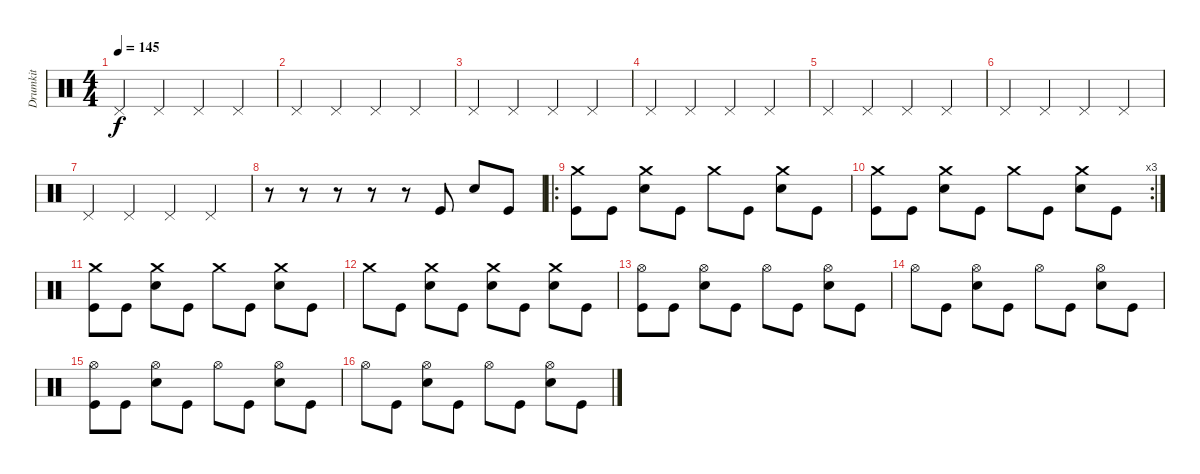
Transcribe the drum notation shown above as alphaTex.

\track ("Drumkit" "Drumkit") {instrument percussion}
\staff {score}
\articulation defaults
\ts (4 4)
\tempo 145
\clef neutral
\ks c "Pedal Hi-Hat (hit)".4{dy f} "Pedal Hi-Hat (hit)".4 "Pedal Hi-Hat (hit)".4 "Pedal Hi-Hat (hit)".4
|
"Pedal Hi-Hat (hit)".4 "Pedal Hi-Hat (hit)".4 "Pedal Hi-Hat (hit)".4 "Pedal Hi-Hat (hit)".4 |
"Pedal Hi-Hat (hit)".4 "Pedal Hi-Hat (hit)".4 "Pedal Hi-Hat (hit)".4 "Pedal Hi-Hat (hit)".4 |
"Pedal Hi-Hat (hit)".4 "Pedal Hi-Hat (hit)".4 "Pedal Hi-Hat (hit)".4 "Pedal Hi-Hat (hit)".4 |
"Pedal Hi-Hat (hit)".4 "Pedal Hi-Hat (hit)".4 "Pedal Hi-Hat (hit)".4 "Pedal Hi-Hat (hit)".4 |
"Pedal Hi-Hat (hit)".4 "Pedal Hi-Hat (hit)".4 "Pedal Hi-Hat (hit)".4 "Pedal Hi-Hat (hit)".4 |
"Pedal Hi-Hat (hit)".4 "Pedal Hi-Hat (hit)".4 "Pedal Hi-Hat (hit)".4 "Pedal Hi-Hat (hit)".4 |
r.8 r.8 r.8 r.8 r.8 "Kick (hit)".8 "Snare (hit) 2".8 "Kick (hit)".8 |
\ro
("Kick (hit)" "Crash medium (hit)").8 "Kick (hit)".8 ("Snare (hit) 2" "Crash medium (hit)").8 "Kick (hit)".8 "Crash medium (hit)".8 "Kick (hit)".8 ("Snare (hit) 2" "Crash medium (hit)").8 "Kick (hit)".8 |
\rc 3
("Kick (hit)" "Crash medium (hit)").8 "Kick (hit)".8 ("Snare (hit) 2" "Crash medium (hit)").8 "Kick (hit)".8 "Crash medium (hit)".8 "Kick (hit)".8 ("Snare (hit) 2" "Crash medium (hit)").8 "Kick (hit)".8 |
("Kick (hit)" "Crash medium (hit)").8 "Kick (hit)".8 ("Snare (hit) 2" "Crash medium (hit)").8 "Kick (hit)".8 "Crash medium (hit)".8 "Kick (hit)".8 ("Snare (hit) 2" "Crash medium (hit)").8 "Kick (hit)".8 |
"Crash medium (hit)".8 "Kick (hit)".8 ("Snare (hit) 2" "Crash medium (hit)").8 "Kick (hit)".8 ("Crash medium (hit)" "Snare (hit) 2").8 "Kick (hit)".8 ("Snare (hit) 2" "Crash medium (hit)").8 "Kick (hit)".8 |
("Kick (hit)" "Hi-Hat (open)").8 "Kick (hit)".8 ("Snare (hit) 2" "Hi-Hat (open)").8 "Kick (hit)".8 "Hi-Hat (open)".8 "Kick (hit)".8 ("Snare (hit) 2" "Hi-Hat (open)").8 "Kick (hit)".8 |
"Hi-Hat (open)".8 "Kick (hit)".8 ("Snare (hit) 2" "Hi-Hat (open)").8 "Kick (hit)".8 "Hi-Hat (open)".8 "Kick (hit)".8 ("Snare (hit) 2" "Hi-Hat (open)").8 "Kick (hit)".8 |
("Kick (hit)" "Hi-Hat (open)").8 "Kick (hit)".8 ("Snare (hit) 2" "Hi-Hat (open)").8 "Kick (hit)".8 "Hi-Hat (open)".8 "Kick (hit)".8 ("Snare (hit) 2" "Hi-Hat (open)").8 "Kick (hit)".8 |
"Hi-Hat (open)".8 "Kick (hit)".8 ("Snare (hit) 2" "Hi-Hat (open)").8 "Kick (hit)".8 "Hi-Hat (open)".8 "Kick (hit)".8 ("Snare (hit) 2" "Hi-Hat (open)").8 "Kick (hit)".8
